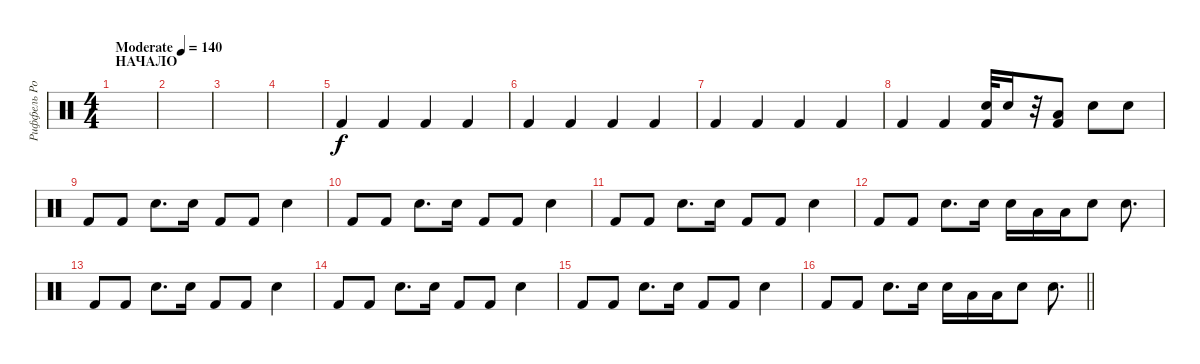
\track ("Риффель Роман(главные)" "Риффель Ро") {instrument percussion}
\staff {score}
\articulation defaults
\ts (4 4)
\section ("" "НАЧАЛО")
\tempo (140 "Moderate")
\clef neutral
\ks c
|
|
|
|
"Kick (hit) 2".4 "Kick (hit) 2".4 "Kick (hit) 2".4 "Kick (hit) 2".4 |
"Kick (hit) 2".4 "Kick (hit) 2".4 "Kick (hit) 2".4 "Kick (hit) 2".4 |
"Kick (hit) 2".4 "Kick (hit) 2".4 "Kick (hit) 2".4 "Kick (hit) 2".4 |
"Kick (hit) 2".4 "Kick (hit) 2".4 ("Kick (hit) 2" "Electric Snare (hit)").32 "Electric Snare (hit)".16 r.32 ("Kick (hit) 2" "Low Tom (hit)").8 "Electric Snare (hit)".8 "Electric Snare (hit)".8 |
"Kick (hit) 2".8 "Kick (hit) 2".8 "Electric Snare (hit)".8{d} "Electric Snare (hit)".16 "Kick (hit) 2".8 "Kick (hit) 2".8 "Electric Snare (hit)".4 |
"Kick (hit) 2".8 "Kick (hit) 2".8 "Electric Snare (hit)".8{d} "Electric Snare (hit)".16 "Kick (hit) 2".8 "Kick (hit) 2".8 "Electric Snare (hit)".4 |
"Kick (hit) 2".8 "Kick (hit) 2".8 "Electric Snare (hit)".8{d} "Electric Snare (hit)".16 "Kick (hit) 2".8 "Kick (hit) 2".8 "Electric Snare (hit)".4 |
"Kick (hit) 2".8 "Kick (hit) 2".8 "Electric Snare (hit)".8{d} "Electric Snare (hit)".16 "Electric Snare (hit)".16 "Low Tom (hit)".16 "Low Tom (hit)".16 "Electric Snare (hit)".8 "Electric Snare (hit)".8{d} |
"Kick (hit) 2".8 "Kick (hit) 2".8 "Electric Snare (hit)".8{d} "Electric Snare (hit)".16 "Kick (hit) 2".8 "Kick (hit) 2".8 "Electric Snare (hit)".4 |
"Kick (hit) 2".8 "Kick (hit) 2".8 "Electric Snare (hit)".8{d} "Electric Snare (hit)".16 "Kick (hit) 2".8 "Kick (hit) 2".8 "Electric Snare (hit)".4 |
"Kick (hit) 2".8 "Kick (hit) 2".8 "Electric Snare (hit)".8{d} "Electric Snare (hit)".16 "Kick (hit) 2".8 "Kick (hit) 2".8 "Electric Snare (hit)".4 |
\barLineRight lightlight "Kick (hit) 2".8 "Kick (hit) 2".8 "Electric Snare (hit)".8{d} "Electric Snare (hit)".16 "Electric Snare (hit)".16 "Low Tom (hit)".16 "Low Tom (hit)".16 "Electric Snare (hit)".8 "Electric Snare (hit)".8{d}
